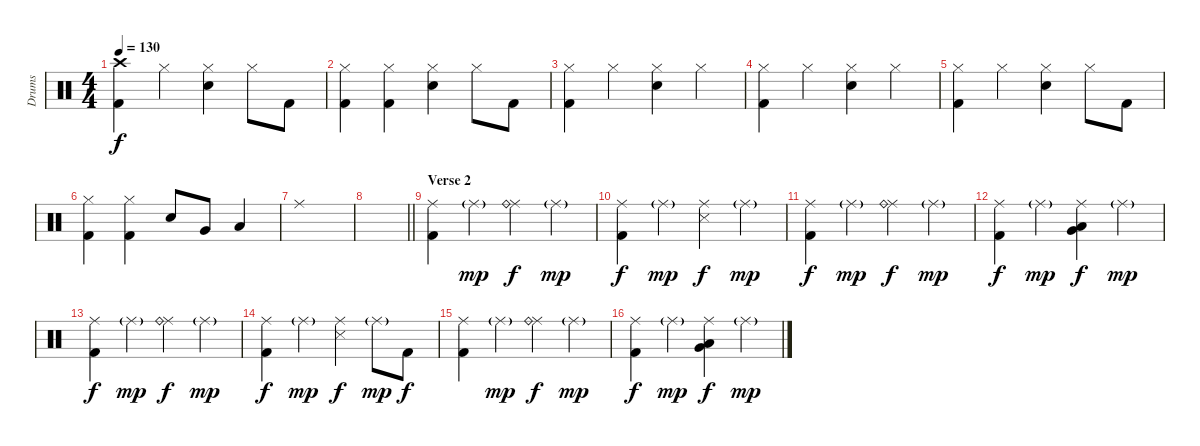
\track ("Drums" "Drums") {instrument percussion}
\staff {score}
\articulation defaults
\ts (4 4)
\tempo 130
\clef neutral
\ks c
("Crash high (hit)" "Kick (hit) 2").4{dy f} "Hi-Hat (closed)".4 ("Hi-Hat (closed)" "Electric Snare (hit)").4 "Hi-Hat (closed)".8 "Kick (hit) 2".8 |
("Hi-Hat (closed)" "Kick (hit) 2").4 ("Hi-Hat (closed)" "Kick (hit) 2").4 ("Hi-Hat (closed)" "Electric Snare (hit)").4 "Hi-Hat (closed)".8 "Kick (hit) 2".8 |
("Hi-Hat (closed)" "Kick (hit) 2").4 "Hi-Hat (closed)".4 ("Hi-Hat (closed)" "Electric Snare (hit)").4 "Hi-Hat (closed)".4 |
("Hi-Hat (closed)" "Kick (hit) 2").4 "Hi-Hat (closed)".4 ("Hi-Hat (closed)" "Electric Snare (hit)").4 "Hi-Hat (closed)".4 |
("Hi-Hat (closed)" "Kick (hit) 2").4 "Hi-Hat (closed)".4 ("Hi-Hat (closed)" "Electric Snare (hit)").4 "Hi-Hat (closed)".8 "Kick (hit) 2".8 |
("Hi-Hat (closed)" "Kick (hit) 2").4 ("Hi-Hat (closed)" "Kick (hit) 2").4 "Electric Snare (hit)".8 "Very Low Tom (hit)".8 "Low Floor Tom (hit)".4 |
"Ride (middle)".1 |
\barLineRight lightlight
|
\section ("" "Verse 2")
("Ride (middle)" "Kick (hit) 2").4 "Ride (middle)"{g}.4{dy mp} ("Ride (middle)" "Ride (bell)").4{dy f} "Ride (middle)"{g}.4{dy mp} |
("Ride (middle)" "Kick (hit) 2").4{dy f} "Ride (middle)"{g}.4{dy mp} ("Ride (middle)" "Snare (side stick) 3").4{dy f} "Ride (middle)"{g}.4{dy mp} |
("Ride (middle)" "Kick (hit) 2").4{dy f} "Ride (middle)"{g}.4{dy mp} ("Ride (middle)" "Ride (bell)").4{dy f} "Ride (middle)"{g}.4{dy mp} |
("Ride (middle)" "Kick (hit) 2").4{dy f} "Ride (middle)"{g}.4{dy mp} ("Ride (middle)" "Very Low Tom (hit)" "Low Floor Tom (hit)").4{dy f} "Ride (middle)"{g}.4{dy mp} |
("Ride (middle)" "Kick (hit) 2").4{dy f} "Ride (middle)"{g}.4{dy mp} ("Ride (middle)" "Ride (bell)").4{dy f} "Ride (middle)"{g}.4{dy mp} |
("Ride (middle)" "Kick (hit) 2").4{dy f} "Ride (middle)"{g}.4{dy mp} ("Ride (middle)" "Snare (side stick) 3").4{dy f} "Ride (middle)"{g}.8{dy mp} "Kick (hit) 2".8{dy f} |
("Ride (middle)" "Kick (hit) 2").4 "Ride (middle)"{g}.4{dy mp} ("Ride (middle)" "Ride (bell)").4{dy f} "Ride (middle)"{g}.4{dy mp} |
("Ride (middle)" "Kick (hit) 2").4{dy f} "Ride (middle)"{g}.4{dy mp} ("Ride (middle)" "Very Low Tom (hit)" "Low Floor Tom (hit)").4{dy f} "Ride (middle)"{g}.4{dy mp}
